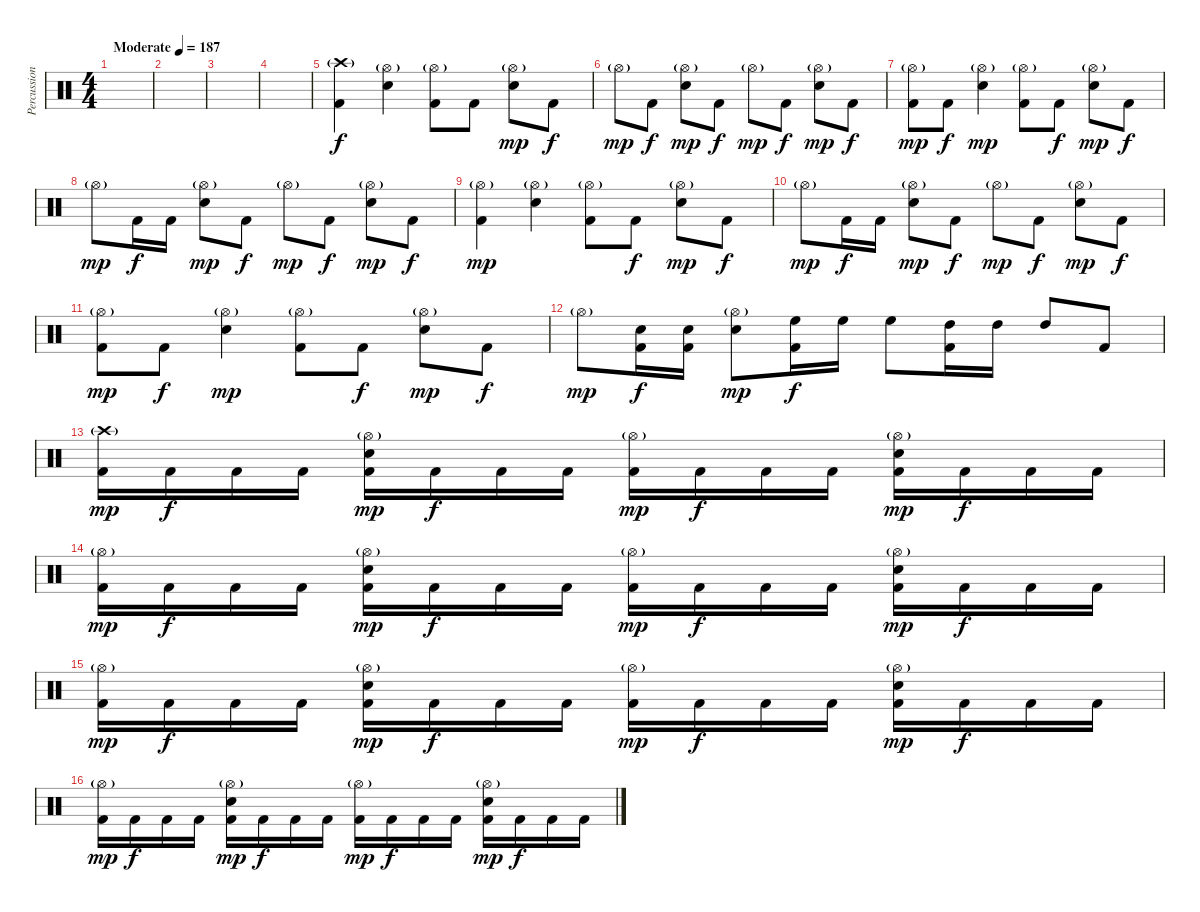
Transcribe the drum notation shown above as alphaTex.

\track ("Percussion" "Percussion") {instrument percussion}
\staff {score}
\articulation defaults
\ts (4 4)
\tempo (187 "Moderate")
\clef neutral
\ks c
|
|
|
|
("Kick (hit) 2" "Crash high (hit)"{g}).4 ("Snare (hit) 2" "Hi-Hat (open)"{g}).4 ("Kick (hit) 2" "Hi-Hat (open)"{g}).8 "Kick (hit) 2".8{dy f} ("Snare (hit) 2" "Hi-Hat (open)"{g}).8{dy mp} "Kick (hit) 2".8{dy f} |
"Hi-Hat (open)"{g}.8{dy mp} "Kick (hit) 2".8{dy f} ("Snare (hit) 2" "Hi-Hat (open)"{g}).8{dy mp} "Kick (hit) 2".8{dy f} "Hi-Hat (open)"{g}.8{dy mp} "Kick (hit) 2".8{dy f} ("Snare (hit) 2" "Hi-Hat (open)"{g}).8{dy mp} "Kick (hit) 2".8{dy f} |
("Kick (hit) 2" "Hi-Hat (open)"{g}).8{dy mp} "Kick (hit) 2".8{dy f} ("Snare (hit) 2" "Hi-Hat (open)"{g}).4{dy mp} ("Kick (hit) 2" "Hi-Hat (open)"{g}).8 "Kick (hit) 2".8{dy f} ("Snare (hit) 2" "Hi-Hat (open)"{g}).8{dy mp} "Kick (hit) 2".8{dy f} |
"Hi-Hat (open)"{g}.8{dy mp} "Kick (hit) 2".16{dy f} "Kick (hit) 2".16 ("Snare (hit) 2" "Hi-Hat (open)"{g}).8{dy mp} "Kick (hit) 2".8{dy f} "Hi-Hat (open)"{g}.8{dy mp} "Kick (hit) 2".8{dy f} ("Snare (hit) 2" "Hi-Hat (open)"{g}).8{dy mp} "Kick (hit) 2".8{dy f} |
("Kick (hit) 2" "Hi-Hat (open)"{g}).4{dy mp} ("Snare (hit) 2" "Hi-Hat (open)"{g}).4 ("Kick (hit) 2" "Hi-Hat (open)"{g}).8 "Kick (hit) 2".8{dy f} ("Snare (hit) 2" "Hi-Hat (open)"{g}).8{dy mp} "Kick (hit) 2".8{dy f} |
"Hi-Hat (open)"{g}.8{dy mp} "Kick (hit) 2".16{dy f} "Kick (hit) 2".16 ("Snare (hit) 2" "Hi-Hat (open)"{g}).8{dy mp} "Kick (hit) 2".8{dy f} "Hi-Hat (open)"{g}.8{dy mp} "Kick (hit) 2".8{dy f} ("Snare (hit) 2" "Hi-Hat (open)"{g}).8{dy mp} "Kick (hit) 2".8{dy f} |
("Kick (hit) 2" "Hi-Hat (open)"{g}).8{dy mp} "Kick (hit) 2".8{dy f} ("Snare (hit) 2" "Hi-Hat (open)"{g}).4{dy mp} ("Kick (hit) 2" "Hi-Hat (open)"{g}).8 "Kick (hit) 2".8{dy f} ("Snare (hit) 2" "Hi-Hat (open)"{g}).8{dy mp} "Kick (hit) 2".8{dy f} |
"Hi-Hat (open)"{g}.8{dy mp} ("Snare (hit) 2" "Kick (hit) 2").16{dy f} ("Kick (hit) 2" "Snare (hit) 2").16 ("Snare (hit) 2" "Hi-Hat (open)"{g}).8{dy mp} ("Kick (hit) 2" "High Floor Tom (hit)").16{dy f} "High Floor Tom (hit)".16 "High Floor Tom (hit)".8 ("Kick (hit) 2" "High Tom (hit)").16 "High Tom (hit)".16 "High Tom (hit)".8 "Kick (hit) 2".8 |
("Kick (hit) 2" "Crash high (hit)"{g}).16{dy mp} "Kick (hit) 2".16{dy f} "Kick (hit) 2".16 "Kick (hit) 2".16 ("Kick (hit) 2" "Snare (hit) 2" "Hi-Hat (open)"{g}).16{dy mp} "Kick (hit) 2".16{dy f} "Kick (hit) 2".16 "Kick (hit) 2".16 ("Kick (hit) 2" "Hi-Hat (open)"{g}).16{dy mp} "Kick (hit) 2".16{dy f} "Kick (hit) 2".16 "Kick (hit) 2".16 ("Kick (hit) 2" "Snare (hit) 2" "Hi-Hat (open)"{g}).16{dy mp} "Kick (hit) 2".16{dy f} "Kick (hit) 2".16 "Kick (hit) 2".16 |
("Kick (hit) 2" "Hi-Hat (open)"{g}).16{dy mp} "Kick (hit) 2".16{dy f} "Kick (hit) 2".16 "Kick (hit) 2".16 ("Kick (hit) 2" "Snare (hit) 2" "Hi-Hat (open)"{g}).16{dy mp} "Kick (hit) 2".16{dy f} "Kick (hit) 2".16 "Kick (hit) 2".16 ("Kick (hit) 2" "Hi-Hat (open)"{g}).16{dy mp} "Kick (hit) 2".16{dy f} "Kick (hit) 2".16 "Kick (hit) 2".16 ("Kick (hit) 2" "Snare (hit) 2" "Hi-Hat (open)"{g}).16{dy mp} "Kick (hit) 2".16{dy f} "Kick (hit) 2".16 "Kick (hit) 2".16 |
("Kick (hit) 2" "Hi-Hat (open)"{g}).16{dy mp} "Kick (hit) 2".16{dy f} "Kick (hit) 2".16 "Kick (hit) 2".16 ("Kick (hit) 2" "Snare (hit) 2" "Hi-Hat (open)"{g}).16{dy mp} "Kick (hit) 2".16{dy f} "Kick (hit) 2".16 "Kick (hit) 2".16 ("Kick (hit) 2" "Hi-Hat (open)"{g}).16{dy mp} "Kick (hit) 2".16{dy f} "Kick (hit) 2".16 "Kick (hit) 2".16 ("Kick (hit) 2" "Snare (hit) 2" "Hi-Hat (open)"{g}).16{dy mp} "Kick (hit) 2".16{dy f} "Kick (hit) 2".16 "Kick (hit) 2".16 |
("Kick (hit) 2" "Hi-Hat (open)"{g}).16{dy mp} "Kick (hit) 2".16{dy f} "Kick (hit) 2".16 "Kick (hit) 2".16 ("Kick (hit) 2" "Snare (hit) 2" "Hi-Hat (open)"{g}).16{dy mp} "Kick (hit) 2".16{dy f} "Kick (hit) 2".16 "Kick (hit) 2".16 ("Kick (hit) 2" "Hi-Hat (open)"{g}).16{dy mp} "Kick (hit) 2".16{dy f} "Kick (hit) 2".16 "Kick (hit) 2".16 ("Kick (hit) 2" "Snare (hit) 2" "Hi-Hat (open)"{g}).16{dy mp} "Kick (hit) 2".16{dy f} "Kick (hit) 2".16 "Kick (hit) 2".16
